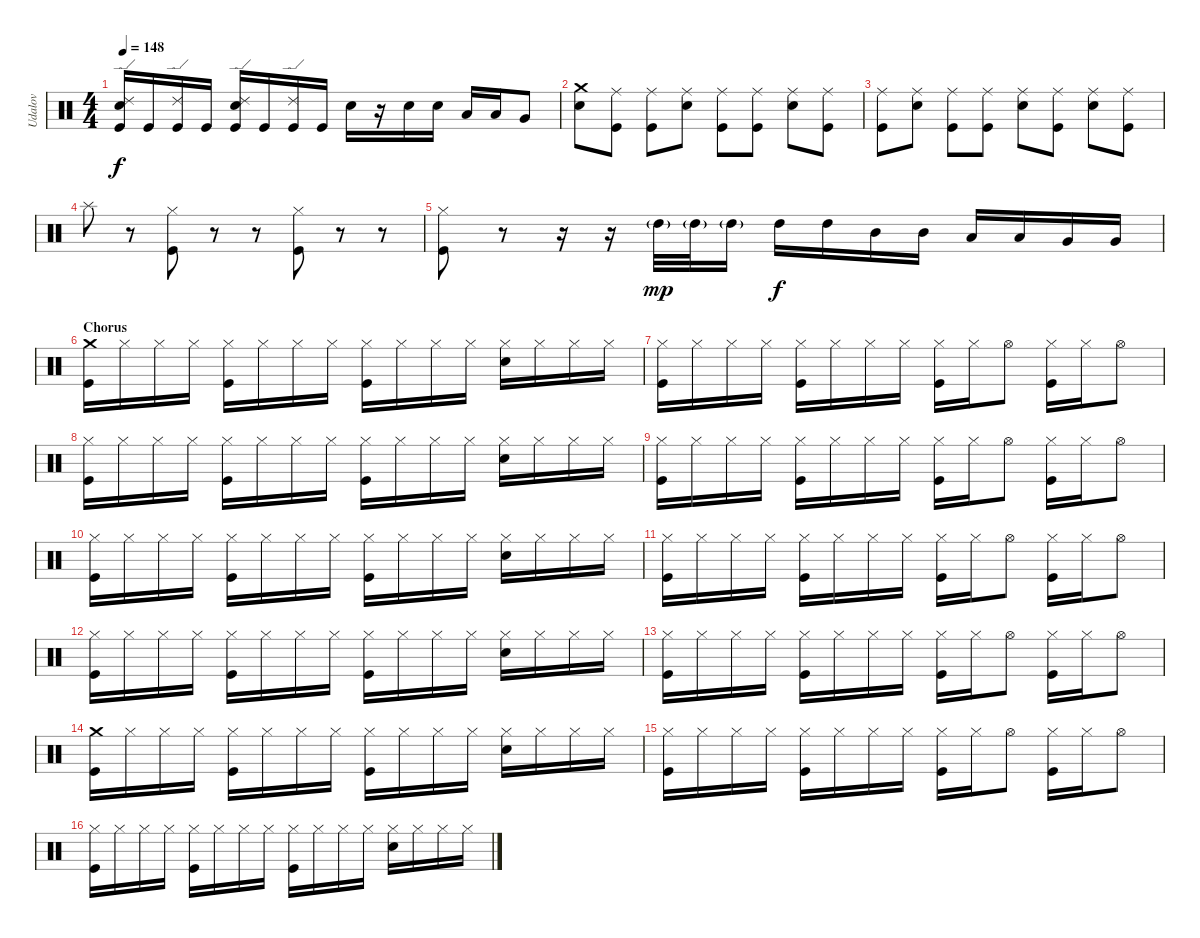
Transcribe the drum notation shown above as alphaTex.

\track ("Udalov" "Udalov") {instrument percussion}
\staff {score}
\articulation defaults
\ts (4 4)
\tempo 148
\clef neutral
\ks c
("Electric Snare (hit)" "Kick (hit)" "Ride (edge) 2").16{dy f} "Kick (hit)".16 ("Kick (hit)" "Ride (edge) 2").16 "Kick (hit)".16 ("Electric Snare (hit)" "Kick (hit)" "Ride (edge) 2").16 "Kick (hit)".16 ("Kick (hit)" "Ride (edge) 2").16 "Kick (hit)".16 "Electric Snare (hit)".16 r.16 "Electric Snare (hit)".16 "Electric Snare (hit)".16 "Low Tom (hit)".16 "Low Tom (hit)".16 "Very Low Tom (hit)".8 |
("Electric Snare (hit)" "Crash medium (hit)").8 ("Kick (hit)" "Ride (middle)").8 ("Kick (hit)" "Ride (middle)").8 ("Electric Snare (hit)" "Ride (middle)").8 ("Kick (hit)" "Ride (middle)").8 ("Kick (hit)" "Ride (middle)").8 ("Electric Snare (hit)" "Ride (middle)").8 ("Kick (hit)" "Ride (middle)").8 |
("Kick (hit)" "Ride (middle)").8 ("Electric Snare (hit)" "Ride (middle)").8 ("Kick (hit)" "Ride (middle)").8 ("Kick (hit)" "Ride (middle)").8 ("Electric Snare (hit)" "Ride (middle)").8 ("Kick (hit)" "Ride (middle)").8 ("Electric Snare (hit)" "Ride (middle)").8 ("Kick (hit)" "Ride (middle)").8 |
"Splash (hit)".8 r.8 ("Kick (hit)" "Hi-Hat (closed)").8 r.8 r.8 ("Kick (hit)" "Hi-Hat (closed)").8 r.8 r.8 |
("Kick (hit)" "Hi-Hat (closed)").8 r.8 r.16 r.16 "High Tom (hit)"{g}.32{dy mp} "High Tom (hit)"{g}.32 "High Tom (hit)"{g}.16 "High Tom (hit)".16{dy f} "High Tom (hit)".16 "Mid Tom (hit)".16 "Mid Tom (hit)".16 "Low Tom (hit)".16 "Low Tom (hit)".16 "Very Low Tom (hit)".16 "Very Low Tom (hit)".16 |
\section ("" "Chorus")
("Kick (hit)" "Crash medium (hit)").16 "Hi-Hat (closed)".16 "Hi-Hat (closed)".16 "Hi-Hat (closed)".16 ("Kick (hit)" "Hi-Hat (closed)").16 "Hi-Hat (closed)".16 "Hi-Hat (closed)".16 "Hi-Hat (closed)".16 ("Kick (hit)" "Hi-Hat (closed)").16 "Hi-Hat (closed)".16 "Hi-Hat (closed)".16 "Hi-Hat (closed)".16 ("Electric Snare (hit)" "Hi-Hat (closed)").16 "Hi-Hat (closed)".16 "Hi-Hat (closed)".16 "Hi-Hat (closed)".16 |
("Kick (hit)" "Hi-Hat (closed)").16 "Hi-Hat (closed)".16 "Hi-Hat (closed)".16 "Hi-Hat (closed)".16 ("Kick (hit)" "Hi-Hat (closed)").16 "Hi-Hat (closed)".16 "Hi-Hat (closed)".16 "Hi-Hat (closed)".16 ("Kick (hit)" "Hi-Hat (closed)").16 "Hi-Hat (closed)".16 "Hi-Hat (open)".8 ("Kick (hit)" "Hi-Hat (closed)").16 "Hi-Hat (closed)".16 "Hi-Hat (open)".8 |
("Kick (hit)" "Hi-Hat (closed)").16 "Hi-Hat (closed)".16 "Hi-Hat (closed)".16 "Hi-Hat (closed)".16 ("Kick (hit)" "Hi-Hat (closed)").16 "Hi-Hat (closed)".16 "Hi-Hat (closed)".16 "Hi-Hat (closed)".16 ("Kick (hit)" "Hi-Hat (closed)").16 "Hi-Hat (closed)".16 "Hi-Hat (closed)".16 "Hi-Hat (closed)".16 ("Electric Snare (hit)" "Hi-Hat (closed)").16 "Hi-Hat (closed)".16 "Hi-Hat (closed)".16 "Hi-Hat (closed)".16 |
("Kick (hit)" "Hi-Hat (closed)").16 "Hi-Hat (closed)".16 "Hi-Hat (closed)".16 "Hi-Hat (closed)".16 ("Kick (hit)" "Hi-Hat (closed)").16 "Hi-Hat (closed)".16 "Hi-Hat (closed)".16 "Hi-Hat (closed)".16 ("Kick (hit)" "Hi-Hat (closed)").16 "Hi-Hat (closed)".16 "Hi-Hat (open)".8 ("Kick (hit)" "Hi-Hat (closed)").16 "Hi-Hat (closed)".16 "Hi-Hat (open)".8 |
("Kick (hit)" "Hi-Hat (closed)").16 "Hi-Hat (closed)".16 "Hi-Hat (closed)".16 "Hi-Hat (closed)".16 ("Kick (hit)" "Hi-Hat (closed)").16 "Hi-Hat (closed)".16 "Hi-Hat (closed)".16 "Hi-Hat (closed)".16 ("Kick (hit)" "Hi-Hat (closed)").16 "Hi-Hat (closed)".16 "Hi-Hat (closed)".16 "Hi-Hat (closed)".16 ("Electric Snare (hit)" "Hi-Hat (closed)").16 "Hi-Hat (closed)".16 "Hi-Hat (closed)".16 "Hi-Hat (closed)".16 |
("Kick (hit)" "Hi-Hat (closed)").16 "Hi-Hat (closed)".16 "Hi-Hat (closed)".16 "Hi-Hat (closed)".16 ("Kick (hit)" "Hi-Hat (closed)").16 "Hi-Hat (closed)".16 "Hi-Hat (closed)".16 "Hi-Hat (closed)".16 ("Kick (hit)" "Hi-Hat (closed)").16 "Hi-Hat (closed)".16 "Hi-Hat (open)".8 ("Kick (hit)" "Hi-Hat (closed)").16 "Hi-Hat (closed)".16 "Hi-Hat (open)".8 |
("Kick (hit)" "Hi-Hat (closed)").16 "Hi-Hat (closed)".16 "Hi-Hat (closed)".16 "Hi-Hat (closed)".16 ("Kick (hit)" "Hi-Hat (closed)").16 "Hi-Hat (closed)".16 "Hi-Hat (closed)".16 "Hi-Hat (closed)".16 ("Kick (hit)" "Hi-Hat (closed)").16 "Hi-Hat (closed)".16 "Hi-Hat (closed)".16 "Hi-Hat (closed)".16 ("Electric Snare (hit)" "Hi-Hat (closed)").16 "Hi-Hat (closed)".16 "Hi-Hat (closed)".16 "Hi-Hat (closed)".16 |
("Kick (hit)" "Hi-Hat (closed)").16 "Hi-Hat (closed)".16 "Hi-Hat (closed)".16 "Hi-Hat (closed)".16 ("Kick (hit)" "Hi-Hat (closed)").16 "Hi-Hat (closed)".16 "Hi-Hat (closed)".16 "Hi-Hat (closed)".16 ("Kick (hit)" "Hi-Hat (closed)").16 "Hi-Hat (closed)".16 "Hi-Hat (open)".8 ("Kick (hit)" "Hi-Hat (closed)").16 "Hi-Hat (closed)".16 "Hi-Hat (open)".8 |
("Kick (hit)" "Crash medium (hit)").16 "Hi-Hat (closed)".16 "Hi-Hat (closed)".16 "Hi-Hat (closed)".16 ("Kick (hit)" "Hi-Hat (closed)").16 "Hi-Hat (closed)".16 "Hi-Hat (closed)".16 "Hi-Hat (closed)".16 ("Kick (hit)" "Hi-Hat (closed)").16 "Hi-Hat (closed)".16 "Hi-Hat (closed)".16 "Hi-Hat (closed)".16 ("Electric Snare (hit)" "Hi-Hat (closed)").16 "Hi-Hat (closed)".16 "Hi-Hat (closed)".16 "Hi-Hat (closed)".16 |
("Kick (hit)" "Hi-Hat (closed)").16 "Hi-Hat (closed)".16 "Hi-Hat (closed)".16 "Hi-Hat (closed)".16 ("Kick (hit)" "Hi-Hat (closed)").16 "Hi-Hat (closed)".16 "Hi-Hat (closed)".16 "Hi-Hat (closed)".16 ("Kick (hit)" "Hi-Hat (closed)").16 "Hi-Hat (closed)".16 "Hi-Hat (open)".8 ("Kick (hit)" "Hi-Hat (closed)").16 "Hi-Hat (closed)".16 "Hi-Hat (open)".8 |
("Kick (hit)" "Hi-Hat (closed)").16 "Hi-Hat (closed)".16 "Hi-Hat (closed)".16 "Hi-Hat (closed)".16 ("Kick (hit)" "Hi-Hat (closed)").16 "Hi-Hat (closed)".16 "Hi-Hat (closed)".16 "Hi-Hat (closed)".16 ("Kick (hit)" "Hi-Hat (closed)").16 "Hi-Hat (closed)".16 "Hi-Hat (closed)".16 "Hi-Hat (closed)".16 ("Electric Snare (hit)" "Hi-Hat (closed)").16 "Hi-Hat (closed)".16 "Hi-Hat (closed)".16 "Hi-Hat (closed)".16
